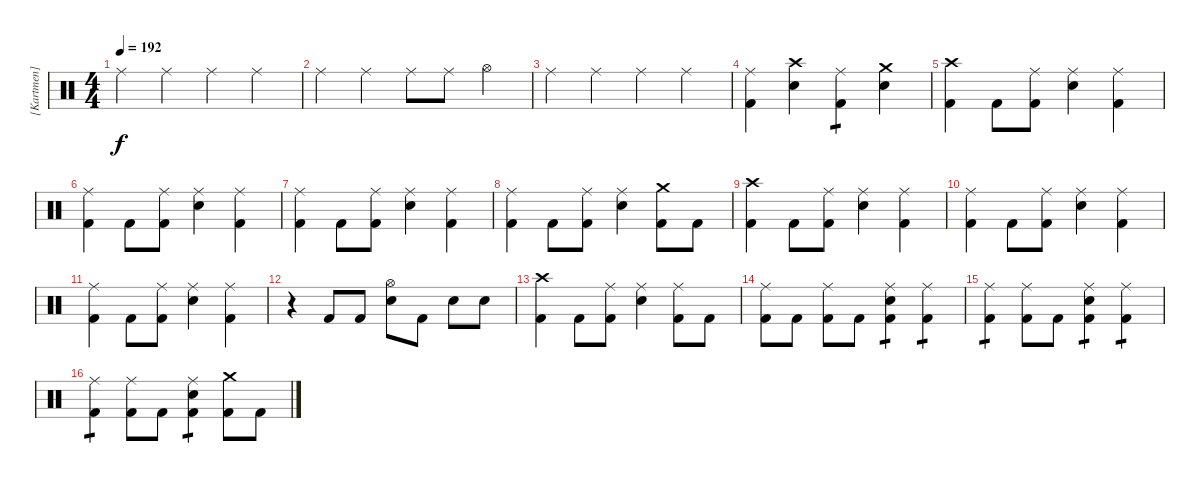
\track ("[Kartmen] - Drums" "[Kartmen] ") {instrument percussion}
\staff {score}
\articulation defaults
\ts (4 4)
\tempo 192
\clef neutral
\ks c "Ride (middle)".4{dy f} "Ride (middle)".4 "Ride (middle)".4 "Ride (middle)".4
|
"Ride (middle)".4 "Ride (middle)".4 "Ride (middle)".8 "Ride (middle)".8 "Hi-Hat (open)".4 |
"Ride (middle)".4 "Ride (middle)".4 "Ride (middle)".4 "Ride (middle)".4 |
("Ride (middle)" "Kick (hit) 2").4 ("Crash high (hit)" "Snare (hit) 2").4 ("Ride (middle)" "Kick (hit) 2").4{tp 1} ("Crash medium (hit)" "Snare (hit) 2").4 |
("Crash high (hit)" "Kick (hit) 2").4 "Kick (hit) 2".8 ("Ride (middle)" "Kick (hit) 2").8 ("Ride (middle)" "Snare (hit) 2").4 ("Ride (middle)" "Kick (hit) 2").4 |
("Ride (middle)" "Kick (hit) 2").4 "Kick (hit) 2".8 ("Ride (middle)" "Kick (hit) 2").8 ("Ride (middle)" "Snare (hit) 2").4 ("Ride (middle)" "Kick (hit) 2").4 |
("Ride (middle)" "Kick (hit) 2").4 "Kick (hit) 2".8 ("Ride (middle)" "Kick (hit) 2").8 ("Ride (middle)" "Snare (hit) 2").4 ("Ride (middle)" "Kick (hit) 2").4 |
("Ride (middle)" "Kick (hit) 2").4 "Kick (hit) 2".8 ("Ride (middle)" "Kick (hit) 2").8 ("Ride (middle)" "Snare (hit) 2").4 ("Crash medium (hit)" "Kick (hit) 2").8 "Kick (hit) 2".8 |
("Crash high (hit)" "Kick (hit) 2").4 "Kick (hit) 2".8 ("Ride (middle)" "Kick (hit) 2").8 ("Ride (middle)" "Snare (hit) 2").4 ("Ride (middle)" "Kick (hit) 2").4 |
("Ride (middle)" "Kick (hit) 2").4 "Kick (hit) 2".8 ("Ride (middle)" "Kick (hit) 2").8 ("Ride (middle)" "Snare (hit) 2").4 ("Ride (middle)" "Kick (hit) 2").4 |
("Ride (middle)" "Kick (hit) 2").4 "Kick (hit) 2".8 ("Ride (middle)" "Kick (hit) 2").8 ("Ride (middle)" "Snare (hit) 2").4 ("Ride (middle)" "Kick (hit) 2").4 |
r.4 "Kick (hit) 2".8 "Kick (hit) 2".8 ("Hi-Hat (open)" "Snare (hit) 2").8 "Kick (hit) 2".8 "Snare (hit) 2".8 "Snare (hit) 2".8 |
("Crash high (hit)" "Kick (hit) 2").4 "Kick (hit) 2".8 ("Ride (middle)" "Kick (hit) 2").8 ("Ride (middle)" "Snare (hit) 2").4 ("Ride (middle)" "Kick (hit) 2").8 "Kick (hit) 2".8 |
("Ride (middle)" "Kick (hit) 2").8 "Kick (hit) 2".8 ("Ride (middle)" "Kick (hit) 2").8 "Kick (hit) 2".8 ("Ride (middle)" "Kick (hit) 2" "Snare (hit) 2").4{tp 1} ("Ride (middle)" "Kick (hit) 2").4{tp 1} |
("Ride (middle)" "Kick (hit) 2").4{tp 1} ("Ride (middle)" "Kick (hit) 2").8 "Kick (hit) 2".8 ("Ride (middle)" "Kick (hit) 2" "Snare (hit) 2").4{tp 1} ("Ride (middle)" "Kick (hit) 2").4{tp 1} |
("Ride (middle)" "Kick (hit) 2").4{tp 1} ("Ride (middle)" "Kick (hit) 2").8 "Kick (hit) 2".8 ("Ride (middle)" "Kick (hit) 2" "Snare (hit) 2").4{tp 1} ("Crash medium (hit)" "Kick (hit) 2").8 "Kick (hit) 2".8
